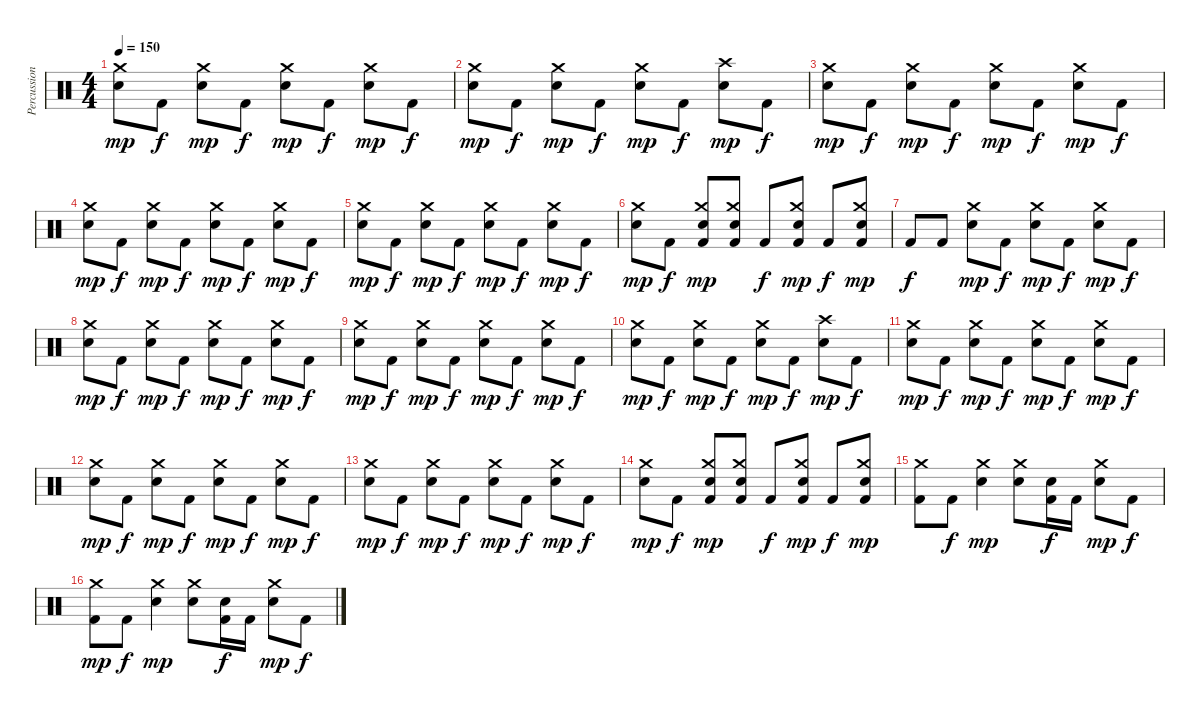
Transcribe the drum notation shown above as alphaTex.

\track ("Percussions" "Percussion") {instrument percussion}
\staff {score}
\articulation defaults
\ts (4 4)
\tempo 150
\clef neutral
\ks c
("Electric Snare (hit)" "Crash medium (hit)").8{dy mp} "Kick (hit) 2".8{dy f} ("Electric Snare (hit)" "Crash medium (hit)").8{dy mp} "Kick (hit) 2".8{dy f} ("Electric Snare (hit)" "Crash medium (hit)").8{dy mp} "Kick (hit) 2".8{dy f} ("Electric Snare (hit)" "Crash medium (hit)").8{dy mp} "Kick (hit) 2".8{dy f} |
("Electric Snare (hit)" "Crash medium (hit)").8{dy mp} "Kick (hit) 2".8{dy f} ("Electric Snare (hit)" "Crash medium (hit)").8{dy mp} "Kick (hit) 2".8{dy f} ("Electric Snare (hit)" "Crash medium (hit)").8{dy mp} "Kick (hit) 2".8{dy f} ("Electric Snare (hit)" "Crash high (hit)").8{dy mp} "Kick (hit) 2".8{dy f} |
("Electric Snare (hit)" "Crash medium (hit)").8{dy mp} "Kick (hit) 2".8{dy f} ("Electric Snare (hit)" "Crash medium (hit)").8{dy mp} "Kick (hit) 2".8{dy f} ("Electric Snare (hit)" "Crash medium (hit)").8{dy mp} "Kick (hit) 2".8{dy f} ("Electric Snare (hit)" "Crash medium (hit)").8{dy mp} "Kick (hit) 2".8{dy f} |
("Electric Snare (hit)" "Crash medium (hit)").8{dy mp} "Kick (hit) 2".8{dy f} ("Electric Snare (hit)" "Crash medium (hit)").8{dy mp} "Kick (hit) 2".8{dy f} ("Electric Snare (hit)" "Crash medium (hit)").8{dy mp} "Kick (hit) 2".8{dy f} ("Electric Snare (hit)" "Crash medium (hit)").8{dy mp} "Kick (hit) 2".8{dy f} |
("Electric Snare (hit)" "Crash medium (hit)").8{dy mp} "Kick (hit) 2".8{dy f} ("Electric Snare (hit)" "Crash medium (hit)").8{dy mp} "Kick (hit) 2".8{dy f} ("Electric Snare (hit)" "Crash medium (hit)").8{dy mp} "Kick (hit) 2".8{dy f} ("Electric Snare (hit)" "Crash medium (hit)").8{dy mp} "Kick (hit) 2".8{dy f} |
("Electric Snare (hit)" "Crash medium (hit)").8{dy mp} "Kick (hit) 2".8{dy f} ("Kick (hit) 2" "Electric Snare (hit)" "Crash medium (hit)").8{dy mp} ("Kick (hit) 2" "Electric Snare (hit)" "Crash medium (hit)").8 "Kick (hit) 2".8{dy f} ("Kick (hit) 2" "Electric Snare (hit)" "Crash medium (hit)").8{dy mp} "Kick (hit) 2".8{dy f} ("Kick (hit) 2" "Electric Snare (hit)" "Crash medium (hit)").8{dy mp} |
"Kick (hit) 2".8{dy f} "Kick (hit) 2".8 ("Electric Snare (hit)" "Crash medium (hit)").8{dy mp} "Kick (hit) 2".8{dy f} ("Electric Snare (hit)" "Crash medium (hit)").8{dy mp} "Kick (hit) 2".8{dy f} ("Electric Snare (hit)" "Crash medium (hit)").8{dy mp} "Kick (hit) 2".8{dy f} |
("Electric Snare (hit)" "Crash medium (hit)").8{dy mp} "Kick (hit) 2".8{dy f} ("Electric Snare (hit)" "Crash medium (hit)").8{dy mp} "Kick (hit) 2".8{dy f} ("Electric Snare (hit)" "Crash medium (hit)").8{dy mp} "Kick (hit) 2".8{dy f} ("Electric Snare (hit)" "Crash medium (hit)").8{dy mp} "Kick (hit) 2".8{dy f} |
("Electric Snare (hit)" "Crash medium (hit)").8{dy mp} "Kick (hit) 2".8{dy f} ("Electric Snare (hit)" "Crash medium (hit)").8{dy mp} "Kick (hit) 2".8{dy f} ("Electric Snare (hit)" "Crash medium (hit)").8{dy mp} "Kick (hit) 2".8{dy f} ("Electric Snare (hit)" "Crash medium (hit)").8{dy mp} "Kick (hit) 2".8{dy f} |
("Electric Snare (hit)" "Crash medium (hit)").8{dy mp} "Kick (hit) 2".8{dy f} ("Electric Snare (hit)" "Crash medium (hit)").8{dy mp} "Kick (hit) 2".8{dy f} ("Electric Snare (hit)" "Crash medium (hit)").8{dy mp} "Kick (hit) 2".8{dy f} ("Electric Snare (hit)" "Crash high (hit)").8{dy mp} "Kick (hit) 2".8{dy f} |
("Electric Snare (hit)" "Crash medium (hit)").8{dy mp} "Kick (hit) 2".8{dy f} ("Electric Snare (hit)" "Crash medium (hit)").8{dy mp} "Kick (hit) 2".8{dy f} ("Electric Snare (hit)" "Crash medium (hit)").8{dy mp} "Kick (hit) 2".8{dy f} ("Electric Snare (hit)" "Crash medium (hit)").8{dy mp} "Kick (hit) 2".8{dy f} |
("Electric Snare (hit)" "Crash medium (hit)").8{dy mp} "Kick (hit) 2".8{dy f} ("Electric Snare (hit)" "Crash medium (hit)").8{dy mp} "Kick (hit) 2".8{dy f} ("Electric Snare (hit)" "Crash medium (hit)").8{dy mp} "Kick (hit) 2".8{dy f} ("Electric Snare (hit)" "Crash medium (hit)").8{dy mp} "Kick (hit) 2".8{dy f} |
("Electric Snare (hit)" "Crash medium (hit)").8{dy mp} "Kick (hit) 2".8{dy f} ("Electric Snare (hit)" "Crash medium (hit)").8{dy mp} "Kick (hit) 2".8{dy f} ("Electric Snare (hit)" "Crash medium (hit)").8{dy mp} "Kick (hit) 2".8{dy f} ("Electric Snare (hit)" "Crash medium (hit)").8{dy mp} "Kick (hit) 2".8{dy f} |
("Electric Snare (hit)" "Crash medium (hit)").8{dy mp} "Kick (hit) 2".8{dy f} ("Kick (hit) 2" "Electric Snare (hit)" "Crash medium (hit)").8{dy mp} ("Kick (hit) 2" "Electric Snare (hit)" "Crash medium (hit)").8 "Kick (hit) 2".8{dy f} ("Kick (hit) 2" "Electric Snare (hit)" "Crash medium (hit)").8{dy mp} "Kick (hit) 2".8{dy f} ("Kick (hit) 2" "Electric Snare (hit)" "Crash medium (hit)").8{dy mp} |
("Kick (hit) 2" "Crash medium (hit)").8 "Kick (hit) 2".8{dy f} ("Electric Snare (hit)" "Crash medium (hit)").4{dy mp} ("Electric Snare (hit)" "Crash medium (hit)").8 ("Kick (hit) 2" "Electric Snare (hit)").16{dy f} "Kick (hit) 2".16 ("Electric Snare (hit)" "Crash medium (hit)").8{dy mp} "Kick (hit) 2".8{dy f} |
("Kick (hit) 2" "Crash medium (hit)").8{dy mp} "Kick (hit) 2".8{dy f} ("Electric Snare (hit)" "Crash medium (hit)").4{dy mp} ("Electric Snare (hit)" "Crash medium (hit)").8 ("Kick (hit) 2" "Electric Snare (hit)").16{dy f} "Kick (hit) 2".16 ("Electric Snare (hit)" "Crash medium (hit)").8{dy mp} "Kick (hit) 2".8{dy f}
